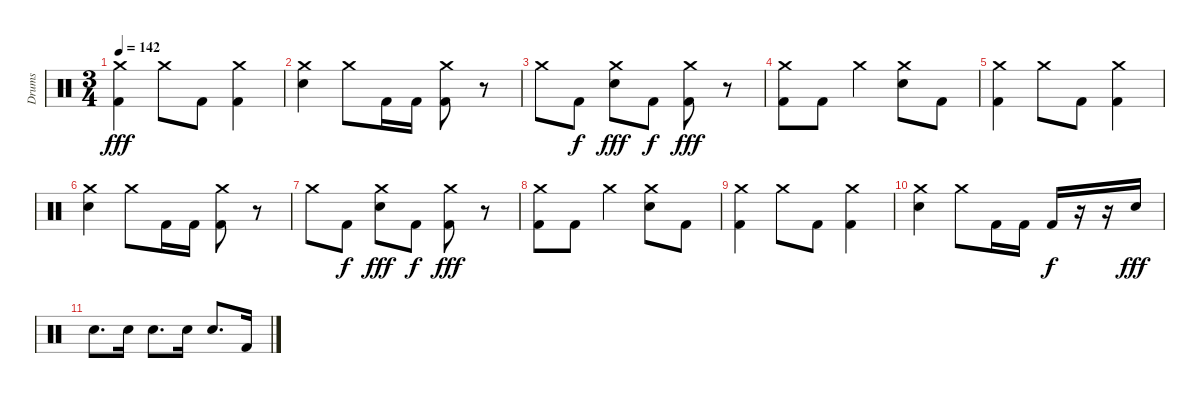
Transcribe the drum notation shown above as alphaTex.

\track ("Drums" "Drums") {instrument percussion}
\staff {score}
\articulation defaults
\ts (3 4)
\tempo 142
\clef neutral
\ks c
("Crash medium (hit)" "Kick (hit) 2").4{dy fff} "Crash medium (hit)".8 "Kick (hit) 2".8 ("Crash medium (hit)" "Kick (hit) 2").4 |
("Crash medium (hit)" "Electric Snare (hit)").4 "Crash medium (hit)".8 "Kick (hit) 2".16 "Kick (hit) 2".16 ("Crash medium (hit)" "Kick (hit) 2").8 r.8 |
"Crash medium (hit)".8 "Kick (hit) 2".8{dy f} ("Crash medium (hit)" "Electric Snare (hit)").8{dy fff} "Kick (hit) 2".8{dy f} ("Crash medium (hit)" "Kick (hit) 2").8{dy fff} r.8 |
("Crash medium (hit)" "Kick (hit) 2").8 "Kick (hit) 2".8 "Crash medium (hit)".4 ("Crash medium (hit)" "Electric Snare (hit)").8{volume 4} "Kick (hit) 2".8 |
("Crash medium (hit)" "Kick (hit) 2").4 "Crash medium (hit)".8 "Kick (hit) 2".8 ("Crash medium (hit)" "Kick (hit) 2").4 |
("Crash medium (hit)" "Electric Snare (hit)").4 "Crash medium (hit)".8 "Kick (hit) 2".16 "Kick (hit) 2".16 ("Crash medium (hit)" "Kick (hit) 2").8 r.8 |
"Crash medium (hit)".8 "Kick (hit) 2".8{dy f} ("Crash medium (hit)" "Electric Snare (hit)").8{dy fff} "Kick (hit) 2".8{dy f} ("Crash medium (hit)" "Kick (hit) 2").8{dy fff} r.8 |
("Crash medium (hit)" "Kick (hit) 2").8 "Kick (hit) 2".8 "Crash medium (hit)".4 ("Crash medium (hit)" "Electric Snare (hit)").8 "Kick (hit) 2".8 |
("Crash medium (hit)" "Kick (hit) 2").4 "Crash medium (hit)".8 "Kick (hit) 2".8 ("Crash medium (hit)" "Kick (hit) 2").4 |
("Crash medium (hit)" "Electric Snare (hit)").4 "Crash medium (hit)".8{volume 0} "Kick (hit) 2".16 "Kick (hit) 2".16 "Kick (hit) 2".16{dy f} r.16 r.16 "Electric Snare (hit)".16{dy fff} |
"Electric Snare (hit)".8{d} "Electric Snare (hit)".16 "Electric Snare (hit)".8{d} "Electric Snare (hit)".16 "Electric Snare (hit)".8{d} "Kick (hit) 2".16
